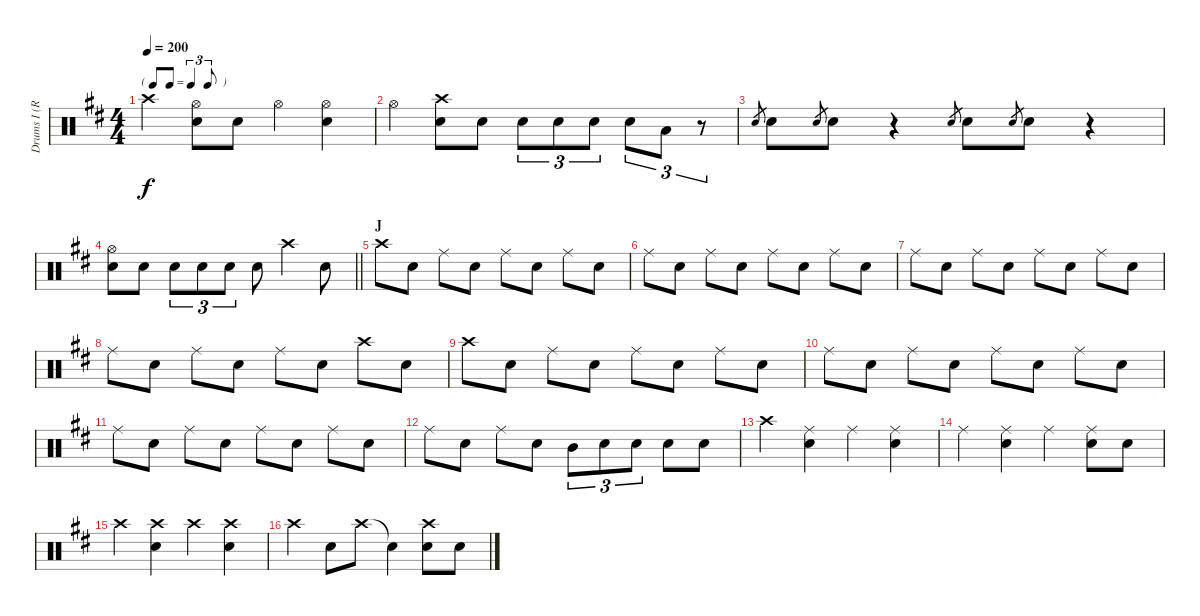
\track ("Drums I (Ruka)" "Drums I (R") {instrument percussion}
\staff {score}
\articulation defaults
\ts (4 4)
\tf triplet8th
\tempo 200
\clef neutral
\ks d "Crash high (hit)".4{dy f}
("Hi-Hat (open)" "Snare (hit) 2").8 "Snare (hit) 2".8 "Hi-Hat (open)".4 ("Hi-Hat (open)" "Snare (hit) 2").4 |
"Hi-Hat (open)".4 ("Crash high (hit)" "Snare (hit) 2").8 "Snare (hit) 2".8 "Snare (hit) 2".8{tu (3 2)} "Snare (hit) 2".8{tu (3 2)} "Snare (hit) 2".8{tu (3 2)} "Snare (hit) 2".8{tu (3 2)} "Low Tom (hit)".8{tu (3 2)} r.8{tu (3 2)} |
"Snare (hit) 2".8{gr} "Snare (hit) 2".8 "Snare (hit) 2".8{gr} "Snare (hit) 2".8 r.4 "Snare (hit) 2".8{gr} "Snare (hit) 2".8 "Snare (hit) 2".8{gr} "Snare (hit) 2".8 r.4 |
\barLineRight lightlight
("Hi-Hat (open)" "Snare (hit) 2").8 "Snare (hit) 2".8 "Snare (hit) 2".8{tu (3 2)} "Snare (hit) 2".8{tu (3 2)} "Snare (hit) 2".8{tu (3 2)} "Snare (hit) 2".8 "Crash high (hit)".4 "Snare (hit) 2".8 |
\section ("" "J")
"Crash high (hit)".8 "Snare (hit) 2".8 "Ride (middle)".8 "Snare (hit) 2".8 "Ride (middle)".8 "Snare (hit) 2".8 "Ride (middle)".8 "Snare (hit) 2".8 |
"Ride (middle)".8 "Snare (hit) 2".8 "Ride (middle)".8 "Snare (hit) 2".8 "Ride (middle)".8 "Snare (hit) 2".8 "Ride (middle)".8 "Snare (hit) 2".8 |
"Ride (middle)".8 "Snare (hit) 2".8 "Ride (middle)".8 "Snare (hit) 2".8 "Ride (middle)".8 "Snare (hit) 2".8 "Ride (middle)".8 "Snare (hit) 2".8 |
"Ride (middle)".8 "Snare (hit) 2".8 "Ride (middle)".8 "Snare (hit) 2".8 "Ride (middle)".8 "Snare (hit) 2".8 "Crash high (hit)".8 "Snare (hit) 2".8 |
"Crash high (hit)".8 "Snare (hit) 2".8 "Ride (middle)".8 "Snare (hit) 2".8 "Ride (middle)".8 "Snare (hit) 2".8 "Ride (middle)".8 "Snare (hit) 2".8 |
"Ride (middle)".8 "Snare (hit) 2".8 "Ride (middle)".8 "Snare (hit) 2".8 "Ride (middle)".8 "Snare (hit) 2".8 "Ride (middle)".8 "Snare (hit) 2".8 |
"Ride (middle)".8 "Snare (hit) 2".8 "Ride (middle)".8 "Snare (hit) 2".8 "Ride (middle)".8 "Snare (hit) 2".8 "Ride (middle)".8 "Snare (hit) 2".8 |
"Ride (middle)".8 "Snare (hit) 2".8 "Ride (middle)".8 "Snare (hit) 2".8 "Mid Tom (hit)".8{tu (3 2)} "Snare (hit) 2".8{tu (3 2)} "Snare (hit) 2".8{tu (3 2)} "Snare (hit) 2".8 "Snare (hit) 2".8 |
"Crash high (hit)".4 ("Ride (middle)" "Snare (hit) 2").4 "Ride (middle)".4 ("Ride (middle)" "Snare (hit) 2").4 |
"Ride (middle)".4 ("Ride (middle)" "Snare (hit) 2").4 "Ride (middle)".4 ("Ride (middle)" "Snare (hit) 2").8 "Snare (hit) 2".8 |
"Crash high (hit)".4 ("Crash high (hit)" "Snare (hit) 2").4 "Crash high (hit)".4 ("Crash high (hit)" "Snare (hit) 2").4 |
"Crash high (hit)".4 "Snare (hit) 2".8 "Crash high (hit)".8 "Snare (hit)"{t}.4 ("Crash high (hit)" "Snare (hit) 2").8 "Snare (hit) 2".8
